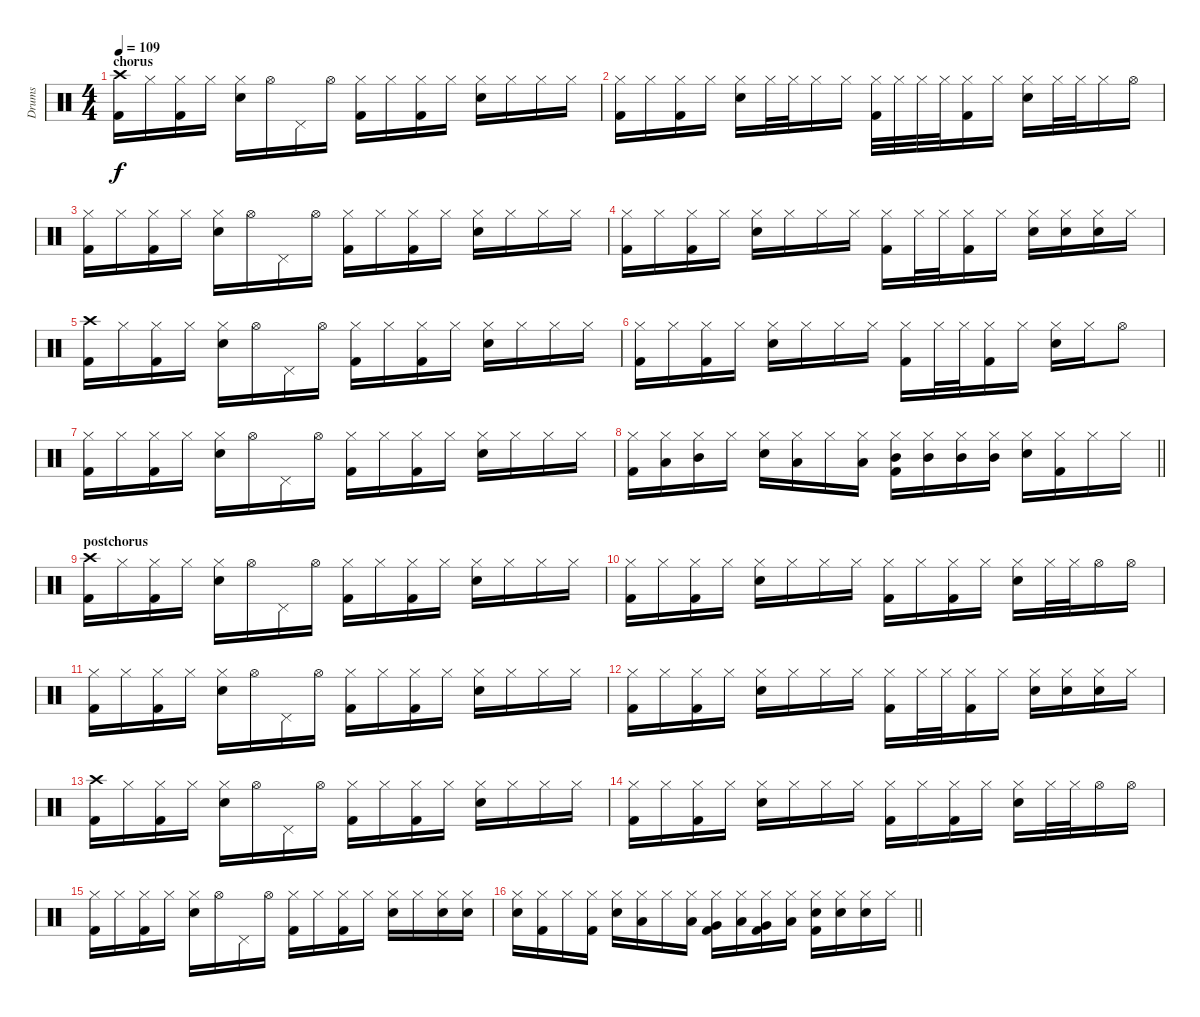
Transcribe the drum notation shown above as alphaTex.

\track ("Drums" "Drums") {instrument percussion}
\staff {score}
\articulation defaults
\ts (4 4)
\section ("" "chorus")
\tempo 109
\clef neutral
\ks c
("Crash high (hit)" "Kick (hit) 2").16{dy f} "Hi-Hat (closed)".16 ("Hi-Hat (closed)" "Kick (hit) 2").16 "Hi-Hat (closed)".16 ("Hi-Hat (closed)" "Electric Snare (hit)").16 "Hi-Hat (open)".16 "Pedal Hi-Hat (hit)".16 "Hi-Hat (open)".16 ("Hi-Hat (closed)" "Kick (hit) 2").16 "Hi-Hat (closed)".16 ("Hi-Hat (closed)" "Kick (hit) 2").16 "Hi-Hat (closed)".16 ("Hi-Hat (closed)" "Electric Snare (hit)").16 "Hi-Hat (closed)".16 "Hi-Hat (closed)".16 "Hi-Hat (closed)".16 |
("Hi-Hat (closed)" "Kick (hit) 2").16 "Hi-Hat (closed)".16 ("Hi-Hat (closed)" "Kick (hit) 2").16 "Hi-Hat (closed)".16 ("Hi-Hat (closed)" "Electric Snare (hit)").16 "Hi-Hat (closed)".32 "Hi-Hat (closed)".32 "Hi-Hat (closed)".16 "Hi-Hat (closed)".16 ("Hi-Hat (closed)" "Kick (hit) 2").32 "Hi-Hat (closed)".32 "Hi-Hat (closed)".32 "Hi-Hat (closed)".32 ("Hi-Hat (closed)" "Kick (hit) 2").16 "Hi-Hat (closed)".16 ("Hi-Hat (closed)" "Electric Snare (hit)").16 "Hi-Hat (closed)".32 "Hi-Hat (closed)".32 "Hi-Hat (closed)".16 "Hi-Hat (open)".16 |
("Hi-Hat (closed)" "Kick (hit) 2").16 "Hi-Hat (closed)".16 ("Hi-Hat (closed)" "Kick (hit) 2").16 "Hi-Hat (closed)".16 ("Hi-Hat (closed)" "Electric Snare (hit)").16 "Hi-Hat (open)".16 "Pedal Hi-Hat (hit)".16 "Hi-Hat (open)".16 ("Hi-Hat (closed)" "Kick (hit) 2").16 "Hi-Hat (closed)".16 ("Hi-Hat (closed)" "Kick (hit) 2").16 "Hi-Hat (closed)".16 ("Hi-Hat (closed)" "Electric Snare (hit)").16 "Hi-Hat (closed)".16 "Hi-Hat (closed)".16 "Hi-Hat (closed)".16 |
("Hi-Hat (closed)" "Kick (hit) 2").16 "Hi-Hat (closed)".16 ("Hi-Hat (closed)" "Kick (hit) 2").16 "Hi-Hat (closed)".16 ("Hi-Hat (closed)" "Electric Snare (hit)").16 "Hi-Hat (closed)".16 "Hi-Hat (closed)".16 "Hi-Hat (closed)".16 ("Hi-Hat (closed)" "Kick (hit) 2").16 "Hi-Hat (closed)".32 "Hi-Hat (closed)".32 ("Hi-Hat (closed)" "Kick (hit) 2").16 "Hi-Hat (closed)".16 ("Hi-Hat (closed)" "Electric Snare (hit)").16 ("Hi-Hat (closed)" "Electric Snare (hit)").16 ("Hi-Hat (closed)" "Electric Snare (hit)").16 "Hi-Hat (closed)".16 |
("Crash high (hit)" "Kick (hit) 2").16 "Hi-Hat (closed)".16 ("Hi-Hat (closed)" "Kick (hit) 2").16 "Hi-Hat (closed)".16 ("Hi-Hat (closed)" "Electric Snare (hit)").16 "Hi-Hat (open)".16 "Pedal Hi-Hat (hit)".16 "Hi-Hat (open)".16 ("Hi-Hat (closed)" "Kick (hit) 2").16 "Hi-Hat (closed)".16 ("Hi-Hat (closed)" "Kick (hit) 2").16 "Hi-Hat (closed)".16 ("Hi-Hat (closed)" "Electric Snare (hit)").16 "Hi-Hat (closed)".16 "Hi-Hat (closed)".16 "Hi-Hat (closed)".16 |
("Hi-Hat (closed)" "Kick (hit) 2").16 "Hi-Hat (closed)".16 ("Hi-Hat (closed)" "Kick (hit) 2").16 "Hi-Hat (closed)".16 ("Hi-Hat (closed)" "Electric Snare (hit)").16 "Hi-Hat (closed)".16 "Hi-Hat (closed)".16 "Hi-Hat (closed)".16 ("Hi-Hat (closed)" "Kick (hit) 2").16 "Hi-Hat (closed)".32 "Hi-Hat (closed)".32 ("Hi-Hat (closed)" "Kick (hit) 2").16 "Hi-Hat (closed)".16 ("Hi-Hat (closed)" "Electric Snare (hit)").16 "Hi-Hat (closed)".16 "Hi-Hat (open)".8 |
("Hi-Hat (closed)" "Kick (hit) 2").16 "Hi-Hat (closed)".16 ("Hi-Hat (closed)" "Kick (hit) 2").16 "Hi-Hat (closed)".16 ("Hi-Hat (closed)" "Electric Snare (hit)").16 "Hi-Hat (open)".16 "Pedal Hi-Hat (hit)".16 "Hi-Hat (open)".16 ("Hi-Hat (closed)" "Kick (hit) 2").16 "Hi-Hat (closed)".16 ("Hi-Hat (closed)" "Kick (hit) 2").16 "Hi-Hat (closed)".16 ("Hi-Hat (closed)" "Electric Snare (hit)").16 "Hi-Hat (closed)".16 "Hi-Hat (closed)".16 "Hi-Hat (closed)".16 |
\barLineRight lightlight
("Hi-Hat (closed)" "Kick (hit) 2").16 ("Hi-Hat (closed)" "Low Tom (hit)").16 ("Hi-Hat (closed)" "Mid Tom (hit)").16 "Hi-Hat (closed)".16 ("Hi-Hat (closed)" "Electric Snare (hit)").16 ("Hi-Hat (closed)" "Low Tom (hit)").16 "Hi-Hat (closed)".16 ("Hi-Hat (closed)" "Low Tom (hit)").16 ("Hi-Hat (closed)" "Mid Tom (hit)" "Kick (hit) 2").16 ("Hi-Hat (closed)" "Mid Tom (hit)").16 ("Hi-Hat (closed)" "Mid Tom (hit)").16 ("Hi-Hat (closed)" "Mid Tom (hit)").16 ("Hi-Hat (closed)" "Electric Snare (hit)").16 ("Hi-Hat (closed)" "Kick (hit) 2").16 "Hi-Hat (closed)".16 "Hi-Hat (closed)".16 |
\section ("" "postchorus")
("Crash high (hit)" "Kick (hit) 2").16 "Hi-Hat (closed)".16 ("Hi-Hat (closed)" "Kick (hit) 2").16 "Hi-Hat (closed)".16 ("Hi-Hat (closed)" "Electric Snare (hit)").16 "Hi-Hat (open)".16 "Pedal Hi-Hat (hit)".16 "Hi-Hat (open)".16 ("Hi-Hat (closed)" "Kick (hit) 2").16 "Hi-Hat (closed)".16 ("Hi-Hat (closed)" "Kick (hit) 2").16 "Hi-Hat (closed)".16 ("Hi-Hat (closed)" "Electric Snare (hit)").16 "Hi-Hat (closed)".16 "Hi-Hat (closed)".16 "Hi-Hat (closed)".16 |
("Hi-Hat (closed)" "Kick (hit) 2").16 "Hi-Hat (closed)".16 ("Hi-Hat (closed)" "Kick (hit) 2").16 "Hi-Hat (closed)".16 ("Hi-Hat (closed)" "Electric Snare (hit)").16 "Hi-Hat (closed)".16 "Hi-Hat (closed)".16 "Hi-Hat (closed)".16 ("Hi-Hat (closed)" "Kick (hit) 2").16 "Hi-Hat (closed)".16 ("Hi-Hat (closed)" "Kick (hit) 2").16 "Hi-Hat (closed)".16 ("Hi-Hat (closed)" "Electric Snare (hit)").16 "Hi-Hat (closed)".32 "Hi-Hat (closed)".32 "Hi-Hat (open)".16 "Hi-Hat (open)".16 |
("Hi-Hat (closed)" "Kick (hit) 2").16 "Hi-Hat (closed)".16 ("Hi-Hat (closed)" "Kick (hit) 2").16 "Hi-Hat (closed)".16 ("Hi-Hat (closed)" "Electric Snare (hit)").16 "Hi-Hat (open)".16 "Pedal Hi-Hat (hit)".16 "Hi-Hat (open)".16 ("Hi-Hat (closed)" "Kick (hit) 2").16 "Hi-Hat (closed)".16 ("Hi-Hat (closed)" "Kick (hit) 2").16 "Hi-Hat (closed)".16 ("Hi-Hat (closed)" "Electric Snare (hit)").16 "Hi-Hat (closed)".16 "Hi-Hat (closed)".16 "Hi-Hat (closed)".16 |
("Hi-Hat (closed)" "Kick (hit) 2").16 "Hi-Hat (closed)".16 ("Hi-Hat (closed)" "Kick (hit) 2").16 "Hi-Hat (closed)".16 ("Hi-Hat (closed)" "Electric Snare (hit)").16 "Hi-Hat (closed)".16 "Hi-Hat (closed)".16 "Hi-Hat (closed)".16 ("Hi-Hat (closed)" "Kick (hit) 2").16 "Hi-Hat (closed)".32 "Hi-Hat (closed)".32 ("Hi-Hat (closed)" "Kick (hit) 2").16 "Hi-Hat (closed)".16 ("Hi-Hat (closed)" "Electric Snare (hit)").16 ("Hi-Hat (closed)" "Electric Snare (hit)").16 ("Hi-Hat (closed)" "Electric Snare (hit)").16 "Hi-Hat (closed)".16 |
("Crash high (hit)" "Kick (hit) 2").16 "Hi-Hat (closed)".16 ("Hi-Hat (closed)" "Kick (hit) 2").16 "Hi-Hat (closed)".16 ("Hi-Hat (closed)" "Electric Snare (hit)").16 "Hi-Hat (open)".16 "Pedal Hi-Hat (hit)".16 "Hi-Hat (open)".16 ("Hi-Hat (closed)" "Kick (hit) 2").16 "Hi-Hat (closed)".16 ("Hi-Hat (closed)" "Kick (hit) 2").16 "Hi-Hat (closed)".16 ("Hi-Hat (closed)" "Electric Snare (hit)").16 "Hi-Hat (closed)".16 "Hi-Hat (closed)".16 "Hi-Hat (closed)".16 |
("Hi-Hat (closed)" "Kick (hit) 2").16 "Hi-Hat (closed)".16 ("Hi-Hat (closed)" "Kick (hit) 2").16 "Hi-Hat (closed)".16 ("Hi-Hat (closed)" "Electric Snare (hit)").16 "Hi-Hat (closed)".16 "Hi-Hat (closed)".16 "Hi-Hat (closed)".16 ("Hi-Hat (closed)" "Kick (hit) 2").16 "Hi-Hat (closed)".16 ("Hi-Hat (closed)" "Kick (hit) 2").16 "Hi-Hat (closed)".16 ("Hi-Hat (closed)" "Electric Snare (hit)").16 "Hi-Hat (closed)".32 "Hi-Hat (closed)".32 "Hi-Hat (open)".16 "Hi-Hat (open)".16 |
("Hi-Hat (closed)" "Kick (hit) 2").16 "Hi-Hat (closed)".16 ("Hi-Hat (closed)" "Kick (hit) 2").16 "Hi-Hat (closed)".16 ("Hi-Hat (closed)" "Electric Snare (hit)").16 "Hi-Hat (open)".16 "Pedal Hi-Hat (hit)".16 "Hi-Hat (open)".16 ("Hi-Hat (closed)" "Kick (hit) 2").16 "Hi-Hat (closed)".16 ("Hi-Hat (closed)" "Kick (hit) 2").16 "Hi-Hat (closed)".16 ("Hi-Hat (closed)" "Electric Snare (hit)").16 "Hi-Hat (closed)".16 ("Hi-Hat (closed)" "Electric Snare (hit)").16 ("Hi-Hat (closed)" "Electric Snare (hit)").16 |
\barLineRight lightlight
("Hi-Hat (closed)" "Electric Snare (hit)").16 ("Hi-Hat (closed)" "Kick (hit) 2").16 "Hi-Hat (closed)".16 ("Hi-Hat (closed)" "Kick (hit) 2").16 ("Hi-Hat (closed)" "Electric Snare (hit)").16 ("Hi-Hat (closed)" "Low Tom (hit)").16 "Hi-Hat (closed)".16 ("Hi-Hat (closed)" "Low Tom (hit)").16 ("Hi-Hat (closed)" "Very Low Tom (hit)" "Kick (hit) 2").16 ("Hi-Hat (closed)" "Low Tom (hit)").16 ("Hi-Hat (closed)" "Very Low Tom (hit)" "Kick (hit) 2").16 ("Hi-Hat (closed)" "Low Tom (hit)").16 ("Hi-Hat (closed)" "Electric Snare (hit)" "Kick (hit) 2").16 ("Hi-Hat (closed)" "Electric Snare (hit)").16 ("Hi-Hat (closed)" "Electric Snare (hit)").16 "Hi-Hat (closed)".16
